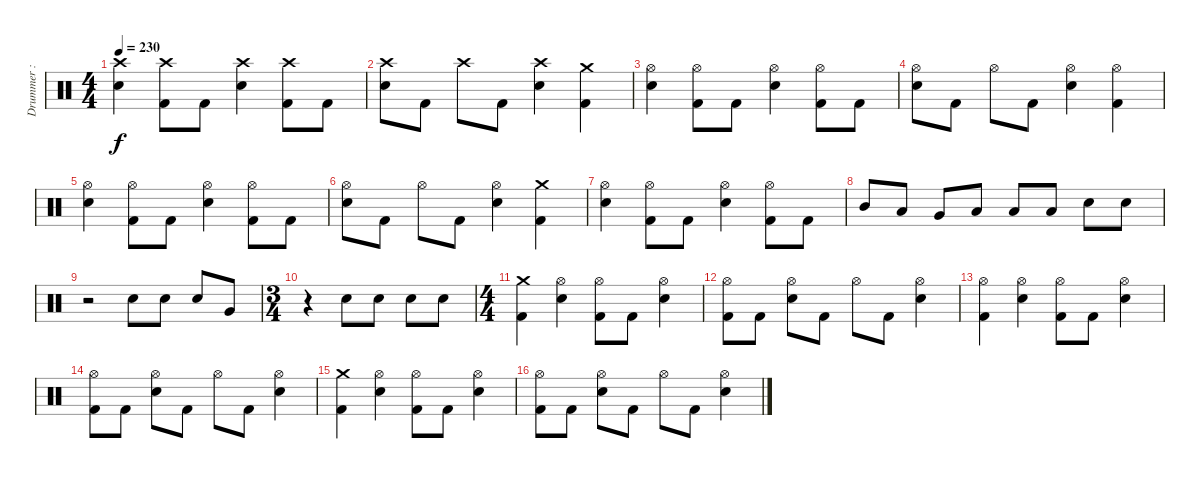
\track ("Drummer : Tainaka Ritsu - Swan" "Drummer : ") {instrument percussion}
\staff {score}
\articulation defaults
\ts (4 4)
\tempo 230
\clef neutral
\ks c
("Crash high (hit)" "Electric Snare (hit)").4{dy f} ("Crash high (hit)" "Kick (hit) 2").8 "Kick (hit) 2".8 ("Crash high (hit)" "Electric Snare (hit)").4 ("Crash high (hit)" "Kick (hit) 2").8 "Kick (hit) 2".8 |
("Crash high (hit)" "Electric Snare (hit)").8 "Kick (hit) 2".8 "Crash high (hit)".8 "Kick (hit) 2".8 ("Crash high (hit)" "Electric Snare (hit)").4 ("Crash medium (hit)" "Kick (hit) 2").4 |
("Hi-Hat (open)" "Electric Snare (hit)").4 ("Hi-Hat (open)" "Kick (hit) 2").8 "Kick (hit) 2".8 ("Hi-Hat (open)" "Electric Snare (hit)").4 ("Hi-Hat (open)" "Kick (hit) 2").8 "Kick (hit) 2".8 |
("Hi-Hat (open)" "Electric Snare (hit)").8 "Kick (hit) 2".8 "Hi-Hat (open)".8 "Kick (hit) 2".8 ("Hi-Hat (open)" "Electric Snare (hit)").4 ("Hi-Hat (open)" "Kick (hit) 2").4 |
("Hi-Hat (open)" "Electric Snare (hit)").4 ("Hi-Hat (open)" "Kick (hit) 2").8 "Kick (hit) 2".8 ("Hi-Hat (open)" "Electric Snare (hit)").4 ("Hi-Hat (open)" "Kick (hit) 2").8 "Kick (hit) 2".8 |
("Hi-Hat (open)" "Electric Snare (hit)").8 "Kick (hit) 2".8 "Hi-Hat (open)".8 "Kick (hit) 2".8 ("Hi-Hat (open)" "Electric Snare (hit)").4 ("Crash medium (hit)" "Kick (hit) 2").4 |
("Hi-Hat (open)" "Electric Snare (hit)").4 ("Hi-Hat (open)" "Kick (hit) 2").8 "Kick (hit) 2".8 ("Hi-Hat (open)" "Electric Snare (hit)").4 ("Hi-Hat (open)" "Kick (hit) 2").8 "Kick (hit) 2".8 |
"Mid Tom (hit)".8 "Low Tom (hit)".8 "Very Low Tom (hit)".8 "Low Floor Tom (hit)".8 "Low Floor Tom (hit)".8 "Low Floor Tom (hit)".8 "Electric Snare (hit)".8 "Electric Snare (hit)".8 |
r.2 "Electric Snare (hit)".8 "Electric Snare (hit)".8 "Electric Snare (hit)".8 "Very Low Tom (hit)".8 |
\ts (3 4)
r.4 "Electric Snare (hit)".8 "Electric Snare (hit)".8 "Electric Snare (hit)".8 "Electric Snare (hit)".8 |
\ts (4 4)
("Crash medium (hit)" "Kick (hit) 2").4 ("Hi-Hat (open)" "Electric Snare (hit)").4 ("Hi-Hat (open)" "Kick (hit) 2").8 "Kick (hit) 2".8 ("Hi-Hat (open)" "Electric Snare (hit)").4 |
("Hi-Hat (open)" "Kick (hit) 2").8 "Kick (hit) 2".8 ("Hi-Hat (open)" "Electric Snare (hit)").8 "Kick (hit) 2".8 "Hi-Hat (open)".8 "Kick (hit) 2".8 ("Hi-Hat (open)" "Electric Snare (hit)").4 |
("Hi-Hat (open)" "Kick (hit) 2").4 ("Hi-Hat (open)" "Electric Snare (hit)").4 ("Hi-Hat (open)" "Kick (hit) 2").8 "Kick (hit) 2".8 ("Hi-Hat (open)" "Electric Snare (hit)").4 |
("Hi-Hat (open)" "Kick (hit) 2").8 "Kick (hit) 2".8 ("Hi-Hat (open)" "Electric Snare (hit)").8 "Kick (hit) 2".8 "Hi-Hat (open)".8 "Kick (hit) 2".8 ("Hi-Hat (open)" "Electric Snare (hit)").4 |
("Crash medium (hit)" "Kick (hit) 2").4 ("Hi-Hat (open)" "Electric Snare (hit)").4 ("Hi-Hat (open)" "Kick (hit) 2").8 "Kick (hit) 2".8 ("Hi-Hat (open)" "Electric Snare (hit)").4 |
("Hi-Hat (open)" "Kick (hit) 2").8 "Kick (hit) 2".8 ("Hi-Hat (open)" "Electric Snare (hit)").8 "Kick (hit) 2".8 "Hi-Hat (open)".8 "Kick (hit) 2".8 ("Hi-Hat (open)" "Electric Snare (hit)").4
